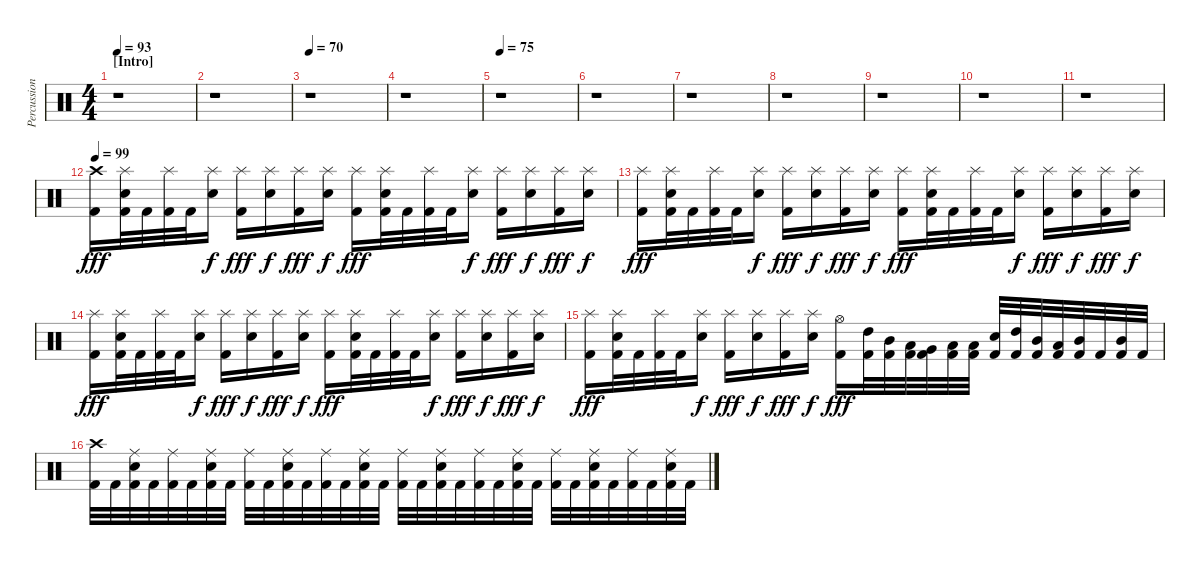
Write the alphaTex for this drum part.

\track ("Percussion" "Percussion") {instrument percussion}
\staff {score}
\articulation defaults
\ts (4 4)
\section ("" "[Intro]")
\tempo 93
\clef neutral
\ks c
r.1{dy fff} |
r.1 |
\tempo 70
r.1 |
r.1 |
\tempo 75
r.1 |
r.1 |
r.1 |
r.1 |
r.1 |
r.1 |
r.1 |
\section ("" "")
\tempo 99
("Crash high (hit)" "Kick (hit) 2").16 ("Splash (hit)" "Snare (hit) 2" "Kick (hit) 2").32 "Kick (hit) 2".32 ("Splash (hit)" "Kick (hit) 2").32 "Kick (hit) 2".32 ("Splash (hit)" "Snare (hit) 2").16{dy f} ("Splash (hit)" "Kick (hit) 2").16{dy fff} ("Splash (hit)" "Snare (hit) 2").16{dy f} ("Splash (hit)" "Kick (hit) 2").16{dy fff} ("Splash (hit)" "Snare (hit) 2").16{dy f} ("Splash (hit)" "Kick (hit) 2").16{dy fff} ("Splash (hit)" "Snare (hit) 2" "Kick (hit) 2").32 "Kick (hit) 2".32 ("Splash (hit)" "Kick (hit) 2").32 "Kick (hit) 2".32 ("Splash (hit)" "Snare (hit) 2").16{dy f} ("Splash (hit)" "Kick (hit) 2").16{dy fff} ("Splash (hit)" "Snare (hit) 2").16{dy f} ("Splash (hit)" "Kick (hit) 2").16{dy fff} ("Splash (hit)" "Snare (hit) 2").16{dy f} |
("Splash (hit)" "Kick (hit) 2").16{dy fff} ("Splash (hit)" "Snare (hit) 2" "Kick (hit) 2").32 "Kick (hit) 2".32 ("Splash (hit)" "Kick (hit) 2").32 "Kick (hit) 2".32 ("Splash (hit)" "Snare (hit) 2").16{dy f} ("Splash (hit)" "Kick (hit) 2").16{dy fff} ("Splash (hit)" "Snare (hit) 2").16{dy f} ("Splash (hit)" "Kick (hit) 2").16{dy fff} ("Splash (hit)" "Snare (hit) 2").16{dy f} ("Splash (hit)" "Kick (hit) 2").16{dy fff} ("Splash (hit)" "Snare (hit) 2" "Kick (hit) 2").32 "Kick (hit) 2".32 ("Splash (hit)" "Kick (hit) 2").32 "Kick (hit) 2".32 ("Splash (hit)" "Snare (hit) 2").16{dy f} ("Splash (hit)" "Kick (hit) 2").16{dy fff} ("Splash (hit)" "Snare (hit) 2").16{dy f} ("Splash (hit)" "Kick (hit) 2").16{dy fff} ("Splash (hit)" "Snare (hit) 2").16{dy f} |
("Splash (hit)" "Kick (hit) 2").16{dy fff} ("Splash (hit)" "Snare (hit) 2" "Kick (hit) 2").32 "Kick (hit) 2".32 ("Splash (hit)" "Kick (hit) 2").32 "Kick (hit) 2".32 ("Splash (hit)" "Snare (hit) 2").16{dy f} ("Splash (hit)" "Kick (hit) 2").16{dy fff} ("Splash (hit)" "Snare (hit) 2").16{dy f} ("Splash (hit)" "Kick (hit) 2").16{dy fff} ("Splash (hit)" "Snare (hit) 2").16{dy f} ("Splash (hit)" "Kick (hit) 2").16{dy fff} ("Splash (hit)" "Snare (hit) 2" "Kick (hit) 2").32 "Kick (hit) 2".32 ("Splash (hit)" "Kick (hit) 2").32 "Kick (hit) 2".32 ("Splash (hit)" "Snare (hit) 2").16{dy f} ("Splash (hit)" "Kick (hit) 2").16{dy fff} ("Splash (hit)" "Snare (hit) 2").16{dy f} ("Splash (hit)" "Kick (hit) 2").16{dy fff} ("Splash (hit)" "Snare (hit) 2").16{dy f} |
("Splash (hit)" "Kick (hit) 2").16{dy fff} ("Splash (hit)" "Snare (hit) 2" "Kick (hit) 2").32 "Kick (hit) 2".32 ("Splash (hit)" "Kick (hit) 2").32 "Kick (hit) 2".32 ("Splash (hit)" "Snare (hit) 2").16{dy f} ("Splash (hit)" "Kick (hit) 2").16{dy fff} ("Splash (hit)" "Snare (hit) 2").16{dy f} ("Splash (hit)" "Kick (hit) 2").16{dy fff} ("Splash (hit)" "Snare (hit) 2").16{dy f} ("Hi-Hat (open)" "Kick (hit) 2").16{dy fff} ("High Tom (hit)" "Kick (hit) 2").32 ("Mid Tom (hit)" "Kick (hit) 2").32 ("Low Tom (hit)" "Kick (hit) 2").32 ("Very Low Tom (hit)" "Kick (hit) 2").32 ("Low Floor Tom (hit)" "Kick (hit) 2").32 ("Low Floor Tom (hit)" "Kick (hit) 2").32 ("Snare (hit) 2" "Kick (hit) 2").32 ("High Tom (hit)" "Kick (hit) 2").32 ("Mid Tom (hit)" "Kick (hit) 2").32 ("Low Tom (hit)" "Kick (hit) 2").32 ("Mid Tom (hit)" "Kick (hit) 2").32 "Kick (hit) 2".32 ("Mid Tom (hit)" "Kick (hit) 2").32 "Kick (hit) 2".32 |
("Crash high (hit)" "Kick (hit) 2").32 "Kick (hit) 2".32 ("Ride (middle)" "Snare (hit) 2" "Kick (hit) 2").32 "Kick (hit) 2".32 ("Ride (middle)" "Kick (hit) 2").32 "Kick (hit) 2".32 ("Ride (middle)" "Snare (hit) 2" "Kick (hit) 2").32 "Kick (hit) 2".32 ("Ride (middle)" "Kick (hit) 2").32 "Kick (hit) 2".32 ("Ride (middle)" "Snare (hit) 2" "Kick (hit) 2").32 "Kick (hit) 2".32 ("Ride (middle)" "Kick (hit) 2").32 "Kick (hit) 2".32 ("Ride (middle)" "Snare (hit) 2" "Kick (hit) 2").32 "Kick (hit) 2".32 ("Ride (middle)" "Kick (hit) 2").32 "Kick (hit) 2".32 ("Ride (middle)" "Snare (hit) 2" "Kick (hit) 2").32 "Kick (hit) 2".32 ("Ride (middle)" "Kick (hit) 2").32 "Kick (hit) 2".32 ("Ride (middle)" "Snare (hit) 2" "Kick (hit) 2").32 "Kick (hit) 2".32 ("Ride (middle)" "Kick (hit) 2").32 "Kick (hit) 2".32 ("Ride (middle)" "Snare (hit) 2" "Kick (hit) 2").32 "Kick (hit) 2".32 ("Ride (middle)" "Kick (hit) 2").32 "Kick (hit) 2".32 ("Ride (middle)" "Snare (hit) 2" "Kick (hit) 2").32 "Kick (hit) 2".32
